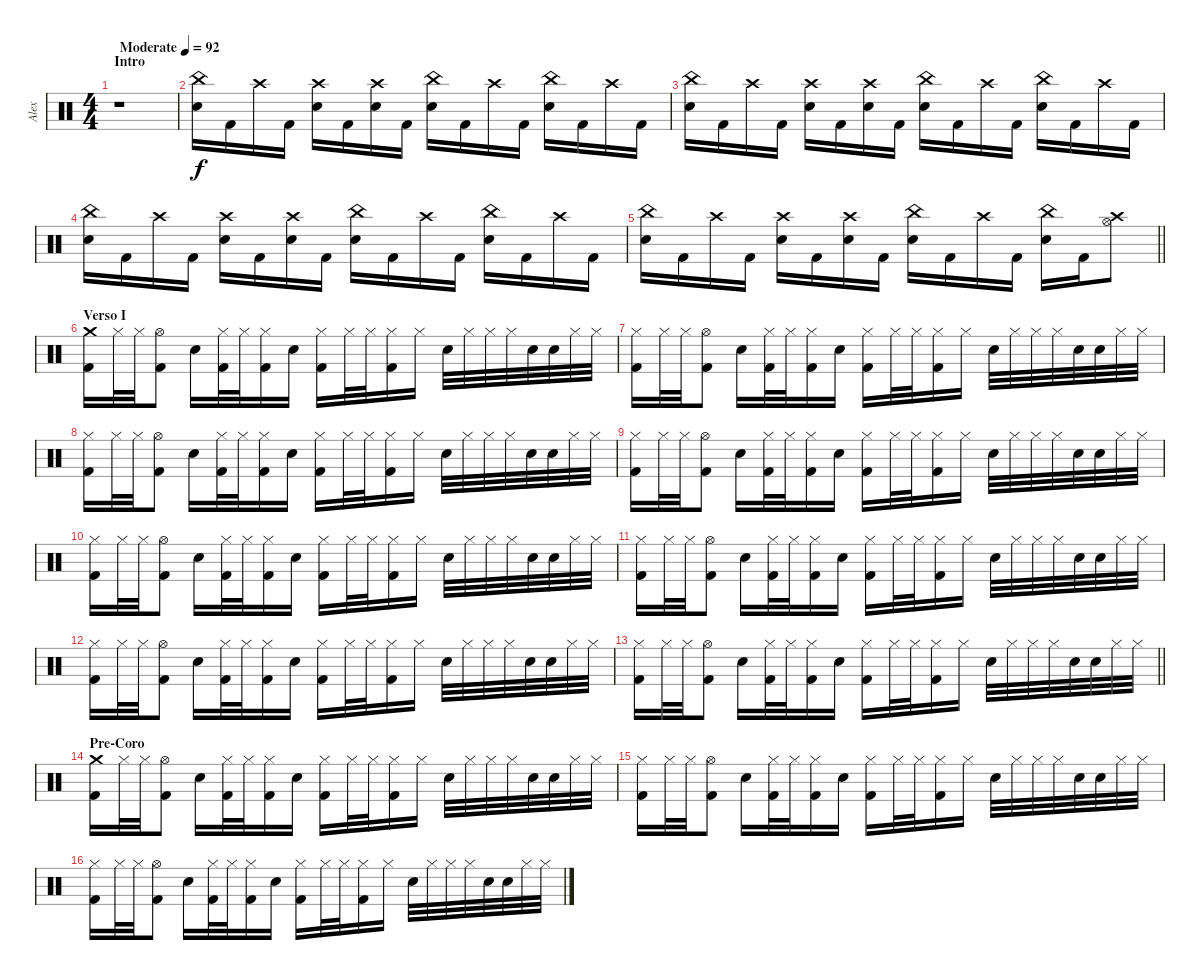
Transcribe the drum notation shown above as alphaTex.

\track ("Alex" "Alex") {instrument percussion}
\staff
\articulation defaults
\ts (4 4)
\section ("" "Intro")
\tempo (92 "Moderate")
\clef neutral
\ks c
r.1{dy f} |
("China (hit)" "Electric Snare (hit)").16 "Kick (hit) 2".16 "Crash high (hit)".16 "Kick (hit) 2".16 ("Crash high (hit)" "Electric Snare (hit)").16 "Kick (hit) 2".16 ("Crash high (hit)" "Electric Snare (hit)").16 "Kick (hit) 2".16 ("China (hit)" "Electric Snare (hit)").16 "Kick (hit) 2".16 "Crash high (hit)".16 "Kick (hit) 2".16 ("China (hit)" "Electric Snare (hit)").16 "Kick (hit) 2".16 "Crash high (hit)".16 "Kick (hit) 2".16 |
("China (hit)" "Electric Snare (hit)").16 "Kick (hit) 2".16 "Crash high (hit)".16 "Kick (hit) 2".16 ("Crash high (hit)" "Electric Snare (hit)").16 "Kick (hit) 2".16 ("Crash high (hit)" "Electric Snare (hit)").16 "Kick (hit) 2".16 ("China (hit)" "Electric Snare (hit)").16 "Kick (hit) 2".16 "Crash high (hit)".16 "Kick (hit) 2".16 ("China (hit)" "Electric Snare (hit)").16 "Kick (hit) 2".16 "Crash high (hit)".16 "Kick (hit) 2".16 |
("China (hit)" "Electric Snare (hit)").16 "Kick (hit) 2".16 "Crash high (hit)".16 "Kick (hit) 2".16 ("Crash high (hit)" "Electric Snare (hit)").16 "Kick (hit) 2".16 ("Crash high (hit)" "Electric Snare (hit)").16 "Kick (hit) 2".16 ("China (hit)" "Electric Snare (hit)").16 "Kick (hit) 2".16 "Crash high (hit)".16 "Kick (hit) 2".16 ("China (hit)" "Electric Snare (hit)").16 "Kick (hit) 2".16 "Crash high (hit)".16 "Kick (hit) 2".16 |
\barLineRight lightlight
("China (hit)" "Electric Snare (hit)").16 "Kick (hit) 2".16 "Crash high (hit)".16 "Kick (hit) 2".16 ("Crash high (hit)" "Electric Snare (hit)").16 "Kick (hit) 2".16 ("Crash high (hit)" "Electric Snare (hit)").16 "Kick (hit) 2".16 ("China (hit)" "Electric Snare (hit)").16 "Kick (hit) 2".16 "Crash high (hit)".16 "Kick (hit) 2".16 ("China (hit)" "Electric Snare (hit)").16 "Kick (hit) 2".16 ("Crash high (hit)" "Hi-Hat (open)").8 |
\section ("" "Verso I")
("Crash medium (hit)" "Kick (hit) 2").16 "Hi-Hat (closed)".32 "Hi-Hat (closed)".32 ("Hi-Hat (open)" "Kick (hit) 2").8 "Electric Snare (hit)".16 ("Hi-Hat (closed)" "Kick (hit) 2").32 "Hi-Hat (closed)".32 ("Hi-Hat (closed)" "Kick (hit) 2").16 "Electric Snare (hit)".16 ("Hi-Hat (closed)" "Kick (hit) 2").16 "Hi-Hat (closed)".32 "Hi-Hat (closed)".32 ("Hi-Hat (closed)" "Kick (hit) 2").16 "Hi-Hat (closed)".16 "Electric Snare (hit)".32 "Hi-Hat (closed)".32 "Hi-Hat (closed)".32 "Hi-Hat (closed)".32 "Electric Snare (hit)".32 "Electric Snare (hit)".32 "Hi-Hat (closed)".32 "Hi-Hat (closed)".32 |
("Hi-Hat (closed)" "Kick (hit) 2").16 "Hi-Hat (closed)".32 "Hi-Hat (closed)".32 ("Hi-Hat (open)" "Kick (hit) 2").8 "Electric Snare (hit)".16 ("Hi-Hat (closed)" "Kick (hit) 2").32 "Hi-Hat (closed)".32 ("Hi-Hat (closed)" "Kick (hit) 2").16 "Electric Snare (hit)".16 ("Hi-Hat (closed)" "Kick (hit) 2").16 "Hi-Hat (closed)".32 "Hi-Hat (closed)".32 ("Hi-Hat (closed)" "Kick (hit) 2").16 "Hi-Hat (closed)".16 "Electric Snare (hit)".32 "Hi-Hat (closed)".32 "Hi-Hat (closed)".32 "Hi-Hat (closed)".32 "Electric Snare (hit)".32 "Electric Snare (hit)".32 "Hi-Hat (closed)".32 "Hi-Hat (closed)".32 |
("Hi-Hat (closed)" "Kick (hit) 2").16 "Hi-Hat (closed)".32 "Hi-Hat (closed)".32 ("Hi-Hat (open)" "Kick (hit) 2").8 "Electric Snare (hit)".16 ("Hi-Hat (closed)" "Kick (hit) 2").32 "Hi-Hat (closed)".32 ("Hi-Hat (closed)" "Kick (hit) 2").16 "Electric Snare (hit)".16 ("Hi-Hat (closed)" "Kick (hit) 2").16 "Hi-Hat (closed)".32 "Hi-Hat (closed)".32 ("Hi-Hat (closed)" "Kick (hit) 2").16 "Hi-Hat (closed)".16 "Electric Snare (hit)".32 "Hi-Hat (closed)".32 "Hi-Hat (closed)".32 "Hi-Hat (closed)".32 "Electric Snare (hit)".32 "Electric Snare (hit)".32 "Hi-Hat (closed)".32 "Hi-Hat (closed)".32 |
("Hi-Hat (closed)" "Kick (hit) 2").16 "Hi-Hat (closed)".32 "Hi-Hat (closed)".32 ("Hi-Hat (open)" "Kick (hit) 2").8 "Electric Snare (hit)".16 ("Hi-Hat (closed)" "Kick (hit) 2").32 "Hi-Hat (closed)".32 ("Hi-Hat (closed)" "Kick (hit) 2").16 "Electric Snare (hit)".16 ("Hi-Hat (closed)" "Kick (hit) 2").16 "Hi-Hat (closed)".32 "Hi-Hat (closed)".32 ("Hi-Hat (closed)" "Kick (hit) 2").16 "Hi-Hat (closed)".16 "Electric Snare (hit)".32 "Hi-Hat (closed)".32 "Hi-Hat (closed)".32 "Hi-Hat (closed)".32 "Electric Snare (hit)".32 "Electric Snare (hit)".32 "Hi-Hat (closed)".32 "Hi-Hat (closed)".32 |
("Hi-Hat (closed)" "Kick (hit) 2").16 "Hi-Hat (closed)".32 "Hi-Hat (closed)".32 ("Hi-Hat (open)" "Kick (hit) 2").8 "Electric Snare (hit)".16 ("Hi-Hat (closed)" "Kick (hit) 2").32 "Hi-Hat (closed)".32 ("Hi-Hat (closed)" "Kick (hit) 2").16 "Electric Snare (hit)".16 ("Hi-Hat (closed)" "Kick (hit) 2").16 "Hi-Hat (closed)".32 "Hi-Hat (closed)".32 ("Hi-Hat (closed)" "Kick (hit) 2").16 "Hi-Hat (closed)".16 "Electric Snare (hit)".32 "Hi-Hat (closed)".32 "Hi-Hat (closed)".32 "Hi-Hat (closed)".32 "Electric Snare (hit)".32 "Electric Snare (hit)".32 "Hi-Hat (closed)".32 "Hi-Hat (closed)".32 |
("Hi-Hat (closed)" "Kick (hit) 2").16 "Hi-Hat (closed)".32 "Hi-Hat (closed)".32 ("Hi-Hat (open)" "Kick (hit) 2").8 "Electric Snare (hit)".16 ("Hi-Hat (closed)" "Kick (hit) 2").32 "Hi-Hat (closed)".32 ("Hi-Hat (closed)" "Kick (hit) 2").16 "Electric Snare (hit)".16 ("Hi-Hat (closed)" "Kick (hit) 2").16 "Hi-Hat (closed)".32 "Hi-Hat (closed)".32 ("Hi-Hat (closed)" "Kick (hit) 2").16 "Hi-Hat (closed)".16 "Electric Snare (hit)".32 "Hi-Hat (closed)".32 "Hi-Hat (closed)".32 "Hi-Hat (closed)".32 "Electric Snare (hit)".32 "Electric Snare (hit)".32 "Hi-Hat (closed)".32 "Hi-Hat (closed)".32 |
("Hi-Hat (closed)" "Kick (hit) 2").16 "Hi-Hat (closed)".32 "Hi-Hat (closed)".32 ("Hi-Hat (open)" "Kick (hit) 2").8 "Electric Snare (hit)".16 ("Hi-Hat (closed)" "Kick (hit) 2").32 "Hi-Hat (closed)".32 ("Hi-Hat (closed)" "Kick (hit) 2").16 "Electric Snare (hit)".16 ("Hi-Hat (closed)" "Kick (hit) 2").16 "Hi-Hat (closed)".32 "Hi-Hat (closed)".32 ("Hi-Hat (closed)" "Kick (hit) 2").16 "Hi-Hat (closed)".16 "Electric Snare (hit)".32 "Hi-Hat (closed)".32 "Hi-Hat (closed)".32 "Hi-Hat (closed)".32 "Electric Snare (hit)".32 "Electric Snare (hit)".32 "Hi-Hat (closed)".32 "Hi-Hat (closed)".32 |
\barLineRight lightlight
("Hi-Hat (closed)" "Kick (hit) 2").16 "Hi-Hat (closed)".32 "Hi-Hat (closed)".32 ("Hi-Hat (open)" "Kick (hit) 2").8 "Electric Snare (hit)".16 ("Hi-Hat (closed)" "Kick (hit) 2").32 "Hi-Hat (closed)".32 ("Hi-Hat (closed)" "Kick (hit) 2").16 "Electric Snare (hit)".16 ("Hi-Hat (closed)" "Kick (hit) 2").16 "Hi-Hat (closed)".32 "Hi-Hat (closed)".32 ("Hi-Hat (closed)" "Kick (hit) 2").16 "Hi-Hat (closed)".16 "Electric Snare (hit)".32 "Hi-Hat (closed)".32 "Hi-Hat (closed)".32 "Hi-Hat (closed)".32 "Electric Snare (hit)".32 "Electric Snare (hit)".32 "Hi-Hat (closed)".32 "Hi-Hat (closed)".32 |
\section ("" "Pre-Coro")
("Crash medium (hit)" "Kick (hit) 2").16 "Hi-Hat (closed)".32 "Hi-Hat (closed)".32 ("Hi-Hat (open)" "Kick (hit) 2").8 "Electric Snare (hit)".16 ("Hi-Hat (closed)" "Kick (hit) 2").32 "Hi-Hat (closed)".32 ("Hi-Hat (closed)" "Kick (hit) 2").16 "Electric Snare (hit)".16 ("Hi-Hat (closed)" "Kick (hit) 2").16 "Hi-Hat (closed)".32 "Hi-Hat (closed)".32 ("Hi-Hat (closed)" "Kick (hit) 2").16 "Hi-Hat (closed)".16 "Electric Snare (hit)".32 "Hi-Hat (closed)".32 "Hi-Hat (closed)".32 "Hi-Hat (closed)".32 "Electric Snare (hit)".32 "Electric Snare (hit)".32 "Hi-Hat (closed)".32 "Hi-Hat (closed)".32 |
("Hi-Hat (closed)" "Kick (hit) 2").16 "Hi-Hat (closed)".32 "Hi-Hat (closed)".32 ("Hi-Hat (open)" "Kick (hit) 2").8 "Electric Snare (hit)".16 ("Hi-Hat (closed)" "Kick (hit) 2").32 "Hi-Hat (closed)".32 ("Hi-Hat (closed)" "Kick (hit) 2").16 "Electric Snare (hit)".16 ("Hi-Hat (closed)" "Kick (hit) 2").16 "Hi-Hat (closed)".32 "Hi-Hat (closed)".32 ("Hi-Hat (closed)" "Kick (hit) 2").16 "Hi-Hat (closed)".16 "Electric Snare (hit)".32 "Hi-Hat (closed)".32 "Hi-Hat (closed)".32 "Hi-Hat (closed)".32 "Electric Snare (hit)".32 "Electric Snare (hit)".32 "Hi-Hat (closed)".32 "Hi-Hat (closed)".32 |
("Hi-Hat (closed)" "Kick (hit) 2").16 "Hi-Hat (closed)".32 "Hi-Hat (closed)".32 ("Hi-Hat (open)" "Kick (hit) 2").8 "Electric Snare (hit)".16 ("Hi-Hat (closed)" "Kick (hit) 2").32 "Hi-Hat (closed)".32 ("Hi-Hat (closed)" "Kick (hit) 2").16 "Electric Snare (hit)".16 ("Hi-Hat (closed)" "Kick (hit) 2").16 "Hi-Hat (closed)".32 "Hi-Hat (closed)".32 ("Hi-Hat (closed)" "Kick (hit) 2").16 "Hi-Hat (closed)".16 "Electric Snare (hit)".32 "Hi-Hat (closed)".32 "Hi-Hat (closed)".32 "Hi-Hat (closed)".32 "Electric Snare (hit)".32 "Electric Snare (hit)".32 "Hi-Hat (closed)".32 "Hi-Hat (closed)".32
